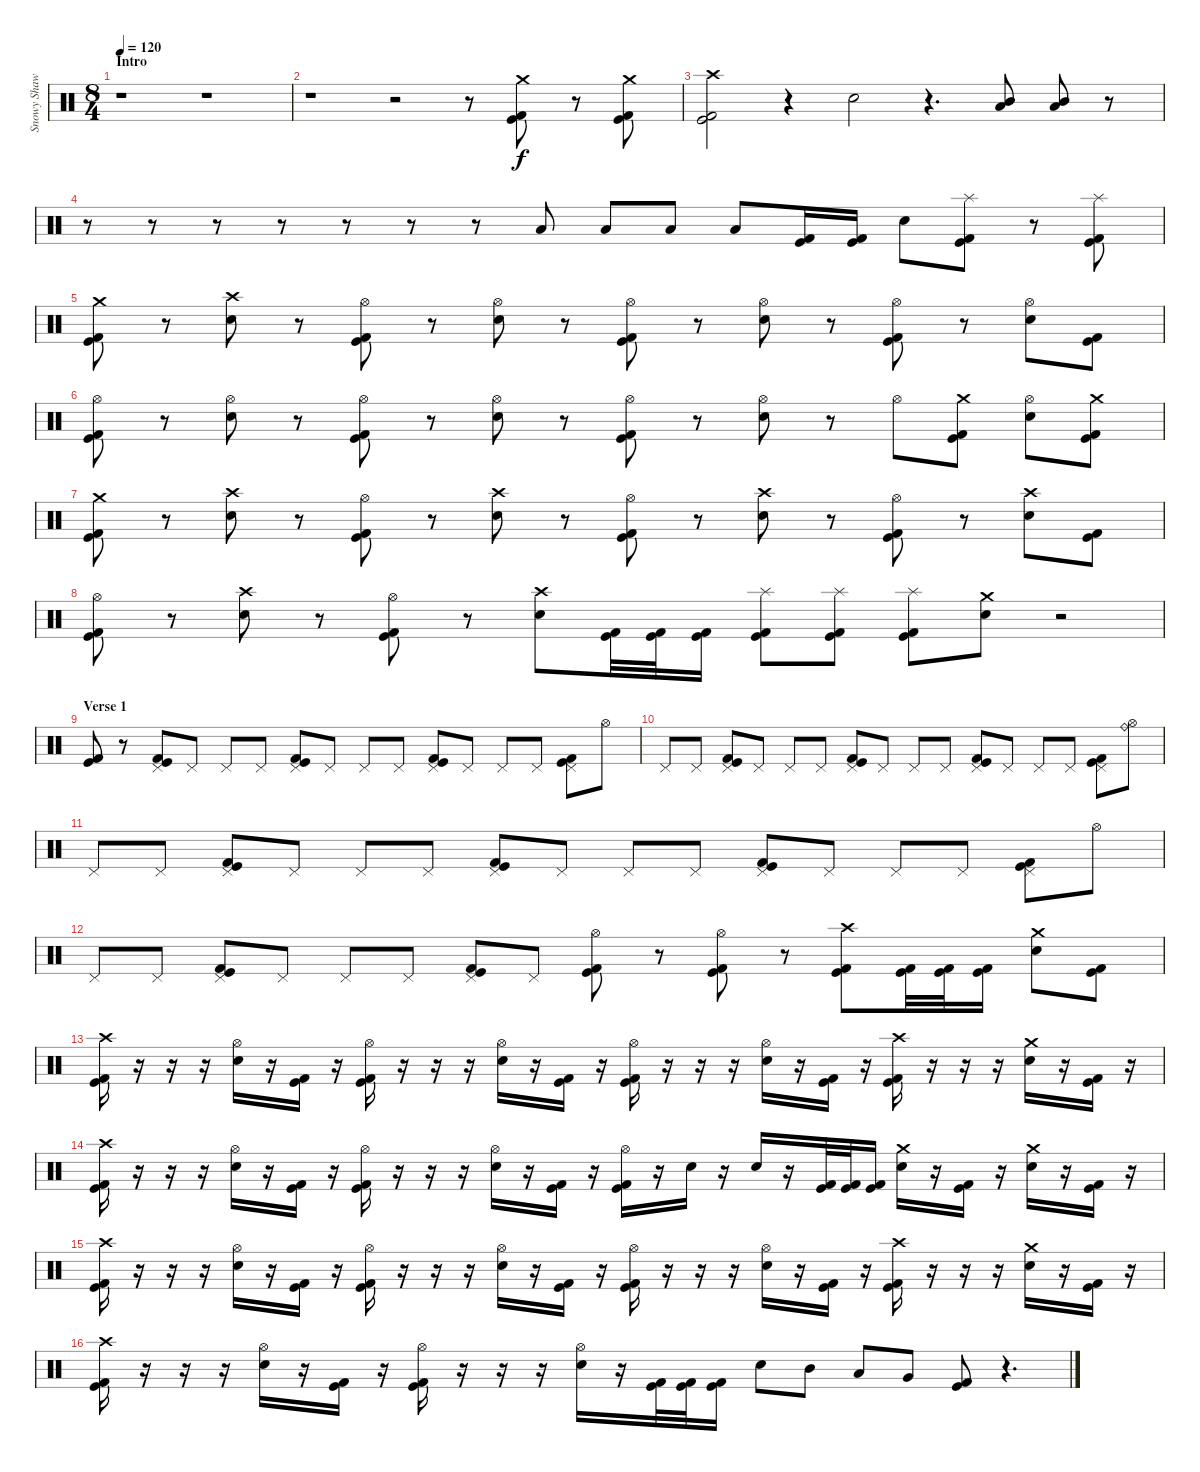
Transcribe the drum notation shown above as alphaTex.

\track ("Snowy Shaw" "Snowy Shaw") {instrument percussion}
\staff {score}
\articulation defaults
\ts (8 4)
\section ("" "Intro")
\tempo 120
\clef neutral
\ks c
r.1{dy f} r.1 |
r.1 r.2 r.8 ("Crash medium (hit)" "Kick (hit)" "Kick (hit) 2").8 r.8 ("Crash medium (hit)" "Kick (hit)" "Kick (hit) 2").8 |
("Crash high (hit)" "Kick (hit)" "Kick (hit) 2").2 r.4 "Electric Snare (hit)".2 r.4{d} ("Mid Tom (hit)" "Low Tom (hit)").8 ("Mid Tom (hit)" "Low Tom (hit)").8 r.8 |
r.8 r.8 r.8 r.8 r.8 r.8 r.8 "Low Tom (hit)".8 "Low Tom (hit)".8 "Low Tom (hit)".8 "Low Tom (hit)".8 ("Kick (hit) 2" "Kick (hit)").16 ("Kick (hit)" "Kick (hit) 2").16 "Electric Snare (hit)".8 ("Splash (hit)" "Kick (hit)" "Kick (hit) 2").8 r.8 ("Splash (hit)" "Kick (hit)" "Kick (hit) 2").8 |
("Crash medium (hit)" "Kick (hit)" "Kick (hit) 2").8 r.8 ("Crash high (hit)" "Electric Snare (hit)").8 r.8 ("Hi-Hat (open)" "Kick (hit)" "Kick (hit) 2").8 r.8 ("Hi-Hat (open)" "Electric Snare (hit)").8 r.8 ("Hi-Hat (open)" "Kick (hit) 2" "Kick (hit)").8 r.8 ("Hi-Hat (open)" "Electric Snare (hit)").8 r.8 ("Hi-Hat (open)" "Kick (hit) 2" "Kick (hit)").8 r.8 ("Hi-Hat (open)" "Electric Snare (hit)").8 ("Kick (hit) 2" "Kick (hit)").8 |
("Hi-Hat (open)" "Kick (hit)" "Kick (hit) 2").8 r.8 ("Hi-Hat (open)" "Electric Snare (hit)").8 r.8 ("Hi-Hat (open)" "Kick (hit)" "Kick (hit) 2").8 r.8 ("Hi-Hat (open)" "Electric Snare (hit)").8 r.8 ("Hi-Hat (open)" "Kick (hit) 2" "Kick (hit)").8 r.8 ("Hi-Hat (open)" "Electric Snare (hit)").8 r.8 "Hi-Hat (open)".8 ("Crash medium (hit)" "Kick (hit)" "Kick (hit) 2").8 ("Hi-Hat (open)" "Electric Snare (hit)").8 ("Crash medium (hit)" "Kick (hit) 2" "Kick (hit)").8 |
("Crash medium (hit)" "Kick (hit)" "Kick (hit) 2").8 r.8 ("Crash high (hit)" "Electric Snare (hit)").8 r.8 ("Hi-Hat (open)" "Kick (hit)" "Kick (hit) 2").8 r.8 ("Crash high (hit)" "Electric Snare (hit)").8 r.8 ("Hi-Hat (open)" "Kick (hit) 2" "Kick (hit)").8 r.8 ("Crash high (hit)" "Electric Snare (hit)").8 r.8 ("Hi-Hat (open)" "Kick (hit) 2" "Kick (hit)").8 r.8 ("Crash high (hit)" "Electric Snare (hit)").8 ("Kick (hit) 2" "Kick (hit)").8 |
("Hi-Hat (open)" "Kick (hit)" "Kick (hit) 2").8 r.8 ("Crash high (hit)" "Electric Snare (hit)").8 r.8 ("Hi-Hat (open)" "Kick (hit)" "Kick (hit) 2").8 r.8 ("Crash high (hit)" "Electric Snare (hit)").8 ("Kick (hit) 2" "Kick (hit)").32 ("Kick (hit) 2" "Kick (hit)").32 ("Kick (hit) 2" "Kick (hit)").16 ("Splash (hit)" "Kick (hit) 2" "Kick (hit)").8 ("Splash (hit)" "Kick (hit) 2" "Kick (hit)").8 ("Splash (hit)" "Kick (hit) 2" "Kick (hit)").8 ("Crash medium (hit)" "Electric Snare (hit)").8 r.2 |
\section ("" "Verse 1")
("Kick (hit) 2" "Kick (hit)").8 r.8 ("Pedal Hi-Hat (hit)" "Kick (hit) 2" "Kick (hit)").8 "Pedal Hi-Hat (hit)".8 "Pedal Hi-Hat (hit)".8 "Pedal Hi-Hat (hit)".8 ("Pedal Hi-Hat (hit)" "Kick (hit) 2" "Kick (hit)").8 "Pedal Hi-Hat (hit)".8 "Pedal Hi-Hat (hit)".8 "Pedal Hi-Hat (hit)".8 ("Pedal Hi-Hat (hit)" "Kick (hit) 2" "Kick (hit)").8 "Pedal Hi-Hat (hit)".8 "Pedal Hi-Hat (hit)".8 "Pedal Hi-Hat (hit)".8 ("Pedal Hi-Hat (hit)" "Kick (hit) 2" "Kick (hit)").8 "Hi-Hat (open)".8 |
"Pedal Hi-Hat (hit)".8 "Pedal Hi-Hat (hit)".8 ("Pedal Hi-Hat (hit)" "Kick (hit) 2" "Kick (hit)").8 "Pedal Hi-Hat (hit)".8 "Pedal Hi-Hat (hit)".8 "Pedal Hi-Hat (hit)".8 ("Pedal Hi-Hat (hit)" "Kick (hit) 2" "Kick (hit)").8 "Pedal Hi-Hat (hit)".8 "Pedal Hi-Hat (hit)".8 "Pedal Hi-Hat (hit)".8 ("Pedal Hi-Hat (hit)" "Kick (hit) 2" "Kick (hit)").8 "Pedal Hi-Hat (hit)".8 "Pedal Hi-Hat (hit)".8 "Pedal Hi-Hat (hit)".8 ("Pedal Hi-Hat (hit)" "Kick (hit) 2" "Kick (hit)").8 ("Ride (bell)" "Hi-Hat (open)").8 |
"Pedal Hi-Hat (hit)".8 "Pedal Hi-Hat (hit)".8 ("Pedal Hi-Hat (hit)" "Kick (hit) 2" "Kick (hit)").8 "Pedal Hi-Hat (hit)".8 "Pedal Hi-Hat (hit)".8 "Pedal Hi-Hat (hit)".8 ("Pedal Hi-Hat (hit)" "Kick (hit) 2" "Kick (hit)").8 "Pedal Hi-Hat (hit)".8 "Pedal Hi-Hat (hit)".8 "Pedal Hi-Hat (hit)".8 ("Pedal Hi-Hat (hit)" "Kick (hit) 2" "Kick (hit)").8 "Pedal Hi-Hat (hit)".8 "Pedal Hi-Hat (hit)".8 "Pedal Hi-Hat (hit)".8 ("Pedal Hi-Hat (hit)" "Kick (hit) 2" "Kick (hit)").8 "Hi-Hat (open)".8 |
"Pedal Hi-Hat (hit)".8 "Pedal Hi-Hat (hit)".8 ("Pedal Hi-Hat (hit)" "Kick (hit) 2" "Kick (hit)").8 "Pedal Hi-Hat (hit)".8 "Pedal Hi-Hat (hit)".8 "Pedal Hi-Hat (hit)".8 ("Pedal Hi-Hat (hit)" "Kick (hit) 2" "Kick (hit)").8 "Pedal Hi-Hat (hit)".8 ("Hi-Hat (open)" "Kick (hit)" "Kick (hit) 2").8 r.8 ("Hi-Hat (open)" "Kick (hit) 2" "Kick (hit)").8 r.8 ("Crash high (hit)" "Kick (hit)" "Kick (hit) 2").8 ("Kick (hit) 2" "Kick (hit)").32 ("Kick (hit) 2" "Kick (hit)").32 ("Kick (hit) 2" "Kick (hit)").16 ("Crash medium (hit)" "Electric Snare (hit)").8 ("Kick (hit) 2" "Kick (hit)").8 |
("Crash high (hit)" "Kick (hit) 2" "Kick (hit)").16 r.16 r.16 r.16 ("Hi-Hat (open)" "Electric Snare (hit)").16 r.16 ("Kick (hit) 2" "Kick (hit)").16 r.16 ("Hi-Hat (open)" "Kick (hit) 2" "Kick (hit)").16 r.16 r.16 r.16 ("Hi-Hat (open)" "Electric Snare (hit)").16 r.16 ("Kick (hit) 2" "Kick (hit)").16 r.16 ("Hi-Hat (open)" "Kick (hit) 2" "Kick (hit)").16 r.16 r.16 r.16 ("Hi-Hat (open)" "Electric Snare (hit)").16 r.16 ("Kick (hit) 2" "Kick (hit)").16 r.16 ("Crash high (hit)" "Kick (hit) 2" "Kick (hit)").16 r.16 r.16 r.16 ("Crash medium (hit)" "Electric Snare (hit)").16 r.16 ("Kick (hit) 2" "Kick (hit)").16 r.16 |
("Crash high (hit)" "Kick (hit) 2" "Kick (hit)").16 r.16 r.16 r.16 ("Hi-Hat (open)" "Electric Snare (hit)").16 r.16 ("Kick (hit) 2" "Kick (hit)").16 r.16 ("Hi-Hat (open)" "Kick (hit) 2" "Kick (hit)").16 r.16 r.16 r.16 ("Hi-Hat (open)" "Electric Snare (hit)").16 r.16 ("Kick (hit) 2" "Kick (hit)").16 r.16 ("Hi-Hat (open)" "Kick (hit) 2" "Kick (hit)").16 r.16 "Electric Snare (hit)".16 r.16 "Electric Snare (hit)".16 r.16 ("Kick (hit) 2" "Kick (hit)").32 ("Kick (hit) 2" "Kick (hit)").32 ("Kick (hit) 2" "Kick (hit)").16 ("Crash medium (hit)" "Electric Snare (hit)").16 r.16 ("Kick (hit)" "Kick (hit) 2").16 r.16 ("Crash medium (hit)" "Electric Snare (hit)").16 r.16 ("Kick (hit)" "Kick (hit) 2").16 r.16 |
("Crash high (hit)" "Kick (hit) 2" "Kick (hit)").16 r.16 r.16 r.16 ("Hi-Hat (open)" "Electric Snare (hit)").16 r.16 ("Kick (hit) 2" "Kick (hit)").16 r.16 ("Hi-Hat (open)" "Kick (hit) 2" "Kick (hit)").16 r.16 r.16 r.16 ("Hi-Hat (open)" "Electric Snare (hit)").16 r.16 ("Kick (hit) 2" "Kick (hit)").16 r.16 ("Hi-Hat (open)" "Kick (hit) 2" "Kick (hit)").16 r.16 r.16 r.16 ("Hi-Hat (open)" "Electric Snare (hit)").16 r.16 ("Kick (hit) 2" "Kick (hit)").16 r.16 ("Crash high (hit)" "Kick (hit) 2" "Kick (hit)").16 r.16 r.16 r.16 ("Crash medium (hit)" "Electric Snare (hit)").16 r.16 ("Kick (hit) 2" "Kick (hit)").16 r.16 |
("Crash high (hit)" "Kick (hit) 2" "Kick (hit)").16 r.16 r.16 r.16 ("Hi-Hat (open)" "Electric Snare (hit)").16 r.16 ("Kick (hit) 2" "Kick (hit)").16 r.16 ("Hi-Hat (open)" "Kick (hit) 2" "Kick (hit)").16 r.16 r.16 r.16 ("Hi-Hat (open)" "Electric Snare (hit)").16 r.16 ("Kick (hit) 2" "Kick (hit)").32 ("Kick (hit) 2" "Kick (hit)").32 ("Kick (hit) 2" "Kick (hit)").16 "Electric Snare (hit)".8 "Mid Tom (hit)".8 "Low Tom (hit)".8 "Very Low Tom (hit)".8 ("Kick (hit) 2" "Kick (hit)").8 r.4{d}
